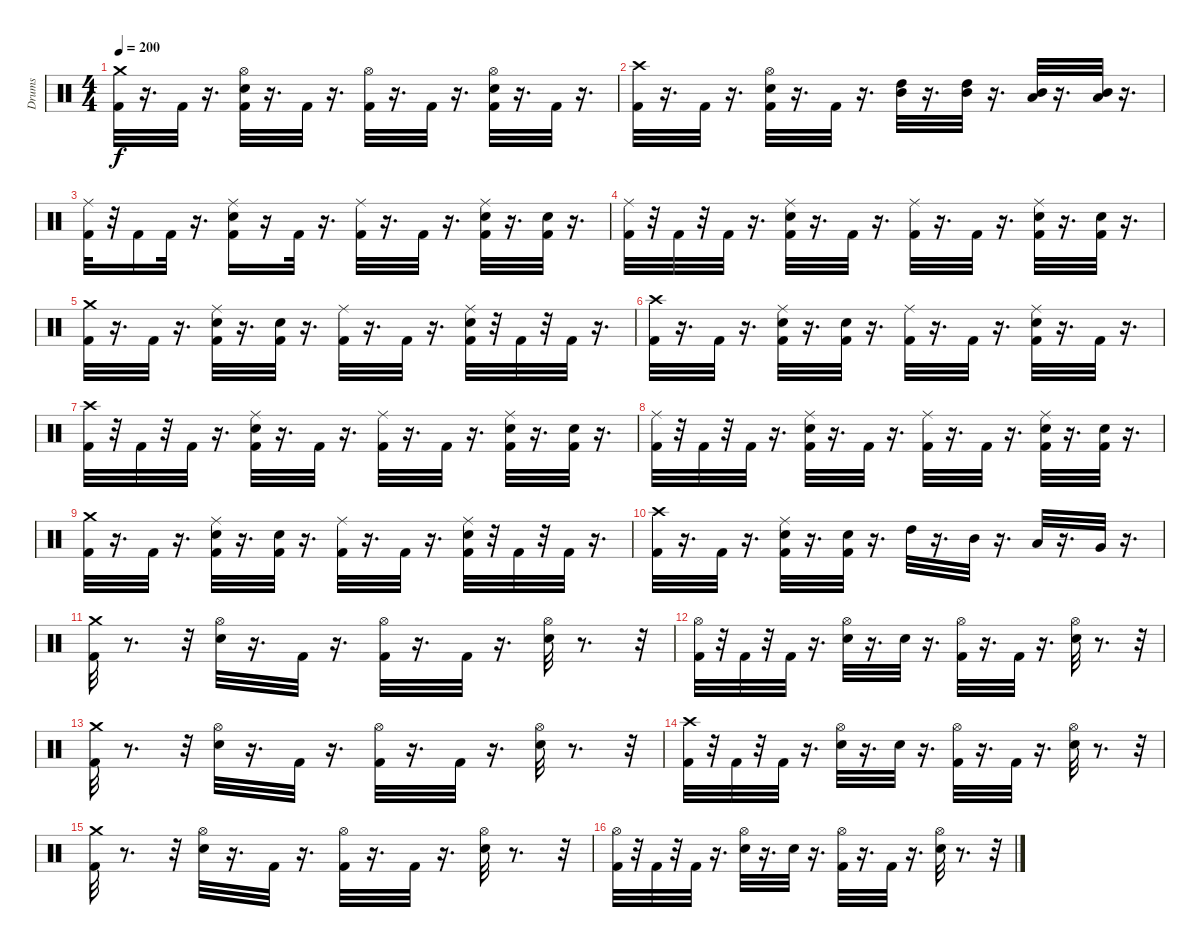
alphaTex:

\track ("Drums" "Drums") {instrument percussion}
\staff {score}
\articulation defaults
\ts (4 4)
\tempo 200
\clef neutral
\ks c
("Kick (hit) 2" "Crash medium (hit)").32{dy f} r.16{d} "Kick (hit) 2".32 r.16{d} ("Kick (hit) 2" "Electric Snare (hit)" "Hi-Hat (open)").32 r.16{d} "Kick (hit) 2".32 r.16{d} ("Kick (hit) 2" "Hi-Hat (open)").32 r.16{d} "Kick (hit) 2".32 r.16{d} ("Kick (hit) 2" "Hi-Hat (open)" "Electric Snare (hit)").32 r.16{d} "Kick (hit) 2".32 r.16{d} |
("Kick (hit) 2" "Crash high (hit)").32 r.16{d} "Kick (hit) 2".32 r.16{d} ("Kick (hit) 2" "Electric Snare (hit)" "Hi-Hat (open)").32 r.16{d} "Kick (hit) 2".32 r.16{d} ("Mid Tom (hit)" "High Tom (hit)").32 r.16{d} ("Mid Tom (hit)" "High Tom (hit)").32 r.16{d} ("Low Tom (hit)" "Mid Tom (hit)").32 r.16{d} ("Low Tom (hit)" "Mid Tom (hit)").32 r.16{d} |
("Ride (middle)" "Kick (hit) 2").32 r.32 "Kick (hit) 2".16 "Kick (hit) 2".32 r.16{d} ("Ride (middle)" "Electric Snare (hit)" "Kick (hit) 2").16 r.16 "Kick (hit) 2".32 r.16{d} ("Ride (middle)" "Kick (hit) 2").32 r.16{d} "Kick (hit) 2".32 r.16{d} ("Kick (hit) 2" "Ride (middle)" "Electric Snare (hit)").32 r.16{d} ("Kick (hit) 2" "Electric Snare (hit)").32 r.16{d} |
("Ride (middle)" "Kick (hit) 2").32 r.32 "Kick (hit) 2".32 r.32 "Kick (hit) 2".32 r.16{d} ("Ride (middle)" "Electric Snare (hit)" "Kick (hit) 2").32 r.16{d} "Kick (hit) 2".32 r.16{d} ("Ride (middle)" "Kick (hit) 2").32 r.16{d} "Kick (hit) 2".32 r.16{d} ("Ride (middle)" "Electric Snare (hit)" "Kick (hit) 2").32 r.16{d} ("Electric Snare (hit)" "Kick (hit) 2").32 r.16{d} |
("Kick (hit) 2" "Crash medium (hit)").32 r.16{d} "Kick (hit) 2".32 r.16{d} ("Kick (hit) 2" "Electric Snare (hit)" "Ride (middle)").32 r.16{d} ("Electric Snare (hit)" "Kick (hit) 2").32 r.16{d} ("Kick (hit) 2" "Ride (middle)").32 r.16{d} "Kick (hit) 2".32 r.16{d} ("Kick (hit) 2" "Ride (middle)" "Electric Snare (hit)").32 r.32 "Kick (hit) 2".32 r.32 "Kick (hit) 2".32 r.16{d} |
("Kick (hit) 2" "Crash high (hit)").32 r.16{d} "Kick (hit) 2".32 r.16{d} ("Kick (hit) 2" "Electric Snare (hit)" "Ride (middle)").32 r.16{d} ("Electric Snare (hit)" "Kick (hit) 2").32 r.16{d} ("Ride (middle)" "Kick (hit) 2").32 r.16{d} "Kick (hit) 2".32 r.16{d} ("Kick (hit) 2" "Electric Snare (hit)" "Ride (middle)").32 r.16{d} "Kick (hit) 2".32 r.16{d} |
("Crash high (hit)" "Kick (hit) 2").32 r.32 "Kick (hit) 2".32 r.32 "Kick (hit) 2".32 r.16{d} ("Ride (middle)" "Electric Snare (hit)" "Kick (hit) 2").32 r.16{d} "Kick (hit) 2".32 r.16{d} ("Ride (middle)" "Kick (hit) 2").32 r.16{d} "Kick (hit) 2".32 r.16{d} ("Ride (middle)" "Electric Snare (hit)" "Kick (hit) 2").32 r.16{d} ("Electric Snare (hit)" "Kick (hit) 2").32 r.16{d} |
("Ride (middle)" "Kick (hit) 2").32 r.32 "Kick (hit) 2".32 r.32 "Kick (hit) 2".32 r.16{d} ("Ride (middle)" "Electric Snare (hit)" "Kick (hit) 2").32 r.16{d} "Kick (hit) 2".32 r.16{d} ("Ride (middle)" "Kick (hit) 2").32 r.16{d} "Kick (hit) 2".32 r.16{d} ("Ride (middle)" "Electric Snare (hit)" "Kick (hit) 2").32 r.16{d} ("Electric Snare (hit)" "Kick (hit) 2").32 r.16{d} |
("Kick (hit) 2" "Crash medium (hit)").32 r.16{d} "Kick (hit) 2".32 r.16{d} ("Kick (hit) 2" "Electric Snare (hit)" "Ride (middle)").32 r.16{d} ("Electric Snare (hit)" "Kick (hit) 2").32 r.16{d} ("Kick (hit) 2" "Ride (middle)").32 r.16{d} "Kick (hit) 2".32 r.16{d} ("Kick (hit) 2" "Ride (middle)" "Electric Snare (hit)").32 r.32 "Kick (hit) 2".32 r.32 "Kick (hit) 2".32 r.16{d} |
("Kick (hit) 2" "Crash high (hit)").32 r.16{d} "Kick (hit) 2".32 r.16{d} ("Kick (hit) 2" "Electric Snare (hit)" "Ride (middle)").32 r.16{d} ("Electric Snare (hit)" "Kick (hit) 2").32 r.16{d} "High Tom (hit)".32 r.16{d} "Mid Tom (hit)".32 r.16{d} "Low Tom (hit)".32 r.16{d} "Very Low Tom (hit)".32 r.16{d} |
("Crash medium (hit)" "Kick (hit) 2").32 r.8{d} r.32 ("Hi-Hat (open)" "Electric Snare (hit)").32 r.16{d} "Kick (hit) 2".32 r.16{d} ("Hi-Hat (open)" "Kick (hit) 2").32 r.16{d} "Kick (hit) 2".32 r.16{d} ("Hi-Hat (open)" "Electric Snare (hit)").32 r.8{d} r.32 |
("Hi-Hat (open)" "Kick (hit) 2").32 r.32 "Kick (hit) 2".32 r.32 "Kick (hit) 2".32 r.16{d} ("Hi-Hat (open)" "Electric Snare (hit)").32 r.16{d} "Electric Snare (hit)".32 r.16{d} ("Hi-Hat (open)" "Kick (hit) 2").32 r.16{d} "Kick (hit) 2".32 r.16{d} ("Hi-Hat (open)" "Electric Snare (hit)").32 r.8{d} r.32 |
("Crash medium (hit)" "Kick (hit) 2").32 r.8{d} r.32 ("Hi-Hat (open)" "Electric Snare (hit)").32 r.16{d} "Kick (hit) 2".32 r.16{d} ("Hi-Hat (open)" "Kick (hit) 2").32 r.16{d} "Kick (hit) 2".32 r.16{d} ("Hi-Hat (open)" "Electric Snare (hit)").32 r.8{d} r.32 |
("Crash high (hit)" "Kick (hit) 2").32 r.32 "Kick (hit) 2".32 r.32 "Kick (hit) 2".32 r.16{d} ("Hi-Hat (open)" "Electric Snare (hit)").32 r.16{d} "Electric Snare (hit)".32 r.16{d} ("Hi-Hat (open)" "Kick (hit) 2").32 r.16{d} "Kick (hit) 2".32 r.16{d} ("Hi-Hat (open)" "Electric Snare (hit)").32 r.8{d} r.32 |
("Crash medium (hit)" "Kick (hit) 2").32 r.8{d} r.32 ("Hi-Hat (open)" "Electric Snare (hit)").32 r.16{d} "Kick (hit) 2".32 r.16{d} ("Hi-Hat (open)" "Kick (hit) 2").32 r.16{d} "Kick (hit) 2".32 r.16{d} ("Hi-Hat (open)" "Electric Snare (hit)").32 r.8{d} r.32 |
("Hi-Hat (open)" "Kick (hit) 2").32 r.32 "Kick (hit) 2".32 r.32 "Kick (hit) 2".32 r.16{d} ("Hi-Hat (open)" "Electric Snare (hit)").32 r.16{d} "Electric Snare (hit)".32 r.16{d} ("Hi-Hat (open)" "Kick (hit) 2").32 r.16{d} "Kick (hit) 2".32 r.16{d} ("Hi-Hat (open)" "Electric Snare (hit)").32 r.8{d} r.32
